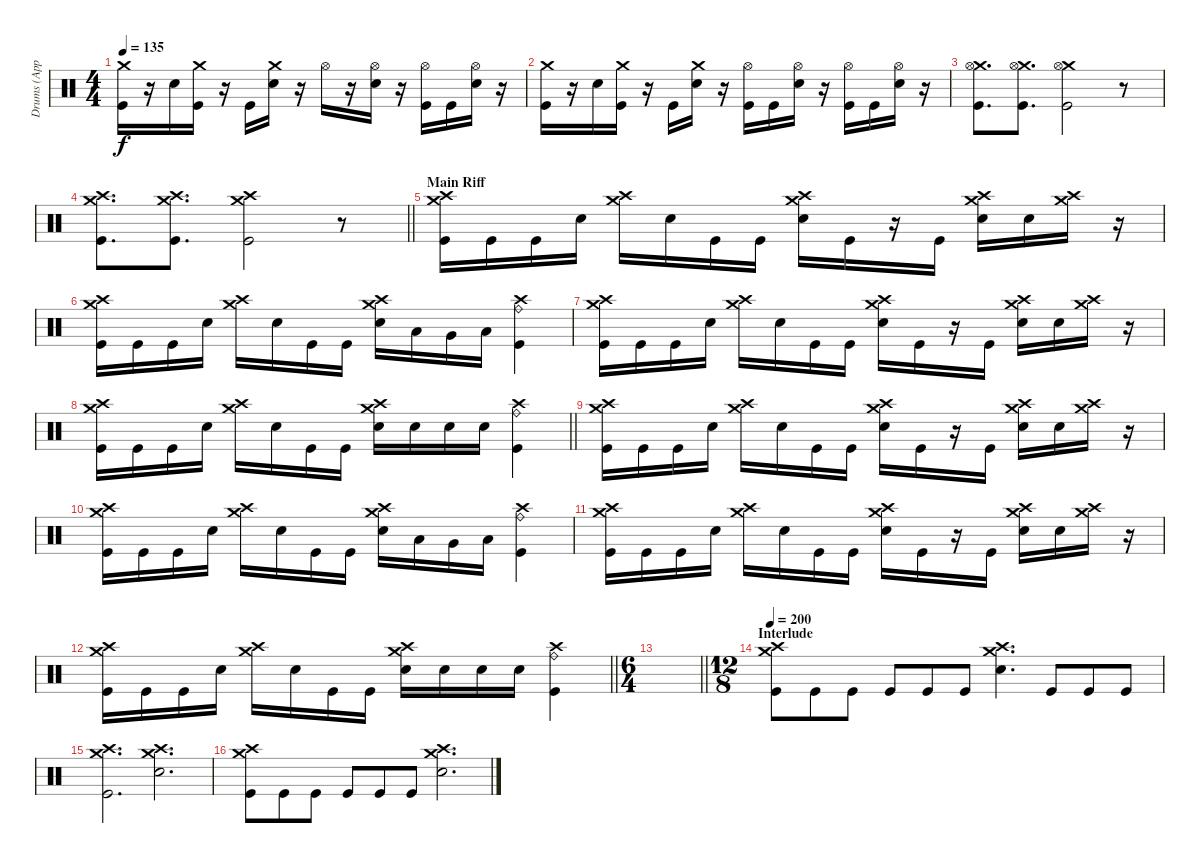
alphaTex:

\track ("Drums (Approx.)" "Drums (App") {instrument percussion}
\staff {score}
\articulation defaults
\ts (4 4)
\tempo 135
\clef neutral
\ks c
("Crash medium (hit)" "Kick (hit)").16{dy f} r.16 "Electric Snare (hit)".16 ("Crash medium (hit)" "Kick (hit)").16 r.16 "Kick (hit)".16 ("Crash medium (hit)" "Electric Snare (hit)").16 r.16 "Hi-Hat (open)".16 r.16 ("Hi-Hat (open)" "Electric Snare (hit)").16 r.16 ("Hi-Hat (open)" "Kick (hit)").16 "Kick (hit)".16 ("Hi-Hat (open)" "Electric Snare (hit)").16 r.16 |
("Crash medium (hit)" "Kick (hit)").16 r.16 "Electric Snare (hit)".16 ("Crash medium (hit)" "Kick (hit)").16 r.16 "Kick (hit)".16 ("Crash medium (hit)" "Electric Snare (hit)").16 r.16 ("Hi-Hat (open)" "Kick (hit)").16 "Kick (hit)".16 ("Hi-Hat (open)" "Electric Snare (hit)").16 r.16 ("Hi-Hat (open)" "Kick (hit)").16 "Kick (hit)".16 ("Hi-Hat (open)" "Electric Snare (hit)").16 r.16 |
("Crash medium (hit)" "Hi-Hat (open)" "Kick (hit)").8{d} ("Crash medium (hit)" "Hi-Hat (open)" "Kick (hit)").8{d} ("Crash medium (hit)" "Hi-Hat (open)" "Kick (hit)").2 r.8 |
\barLineRight lightlight
("Crash medium (hit)" "Crash high (hit)" "Kick (hit)").8{d} ("Crash medium (hit)" "Crash high (hit)" "Kick (hit)").8{d} ("Crash medium (hit)" "Crash high (hit)" "Kick (hit)").2 r.8 |
\section ("" "Main Riff")
("Crash medium (hit)" "Crash high (hit)" "Kick (hit)").16 "Kick (hit)".16 "Kick (hit)".16 "Electric Snare (hit)".16 ("Crash medium (hit)" "Crash high (hit)").16 "Electric Snare (hit)".16 "Kick (hit)".16 "Kick (hit)".16 ("Crash medium (hit)" "Crash high (hit)" "Electric Snare (hit)").16 "Kick (hit)".16 r.16 "Kick (hit)".16 ("Crash medium (hit)" "Crash high (hit)" "Electric Snare (hit)").16 "Electric Snare (hit)".16 ("Crash medium (hit)" "Crash high (hit)").16 r.16 |
("Crash medium (hit)" "Crash high (hit)" "Kick (hit)").16 "Kick (hit)".16 "Kick (hit)".16 "Electric Snare (hit)".16 ("Crash medium (hit)" "Crash high (hit)").16 "Electric Snare (hit)".16 "Kick (hit)".16 "Kick (hit)".16 ("Crash medium (hit)" "Crash high (hit)" "Electric Snare (hit)").16 "Low Tom (hit)".16 "Very Low Tom (hit)".16 "Low Floor Tom (hit)".16 ("Crash high (hit)" "Ride (bell)" "Kick (hit)").4 |
("Crash medium (hit)" "Crash high (hit)" "Kick (hit)").16 "Kick (hit)".16 "Kick (hit)".16 "Electric Snare (hit)".16 ("Crash medium (hit)" "Crash high (hit)").16 "Electric Snare (hit)".16 "Kick (hit)".16 "Kick (hit)".16 ("Crash medium (hit)" "Crash high (hit)" "Electric Snare (hit)").16 "Kick (hit)".16 r.16 "Kick (hit)".16 ("Crash medium (hit)" "Crash high (hit)" "Electric Snare (hit)").16 "Electric Snare (hit)".16 ("Crash medium (hit)" "Crash high (hit)").16 r.16 |
\barLineRight lightlight
("Crash medium (hit)" "Crash high (hit)" "Kick (hit)").16 "Kick (hit)".16 "Kick (hit)".16 "Electric Snare (hit)".16 ("Crash medium (hit)" "Crash high (hit)").16 "Electric Snare (hit)".16 "Kick (hit)".16 "Kick (hit)".16 ("Crash medium (hit)" "Crash high (hit)" "Electric Snare (hit)").16 "Electric Snare (hit)".16 "Electric Snare (hit)".16 "Electric Snare (hit)".16 ("Crash high (hit)" "Ride (bell)" "Kick (hit)").4 |
("Crash medium (hit)" "Crash high (hit)" "Kick (hit)").16 "Kick (hit)".16 "Kick (hit)".16 "Electric Snare (hit)".16 ("Crash medium (hit)" "Crash high (hit)").16 "Electric Snare (hit)".16 "Kick (hit)".16 "Kick (hit)".16 ("Crash medium (hit)" "Crash high (hit)" "Electric Snare (hit)").16 "Kick (hit)".16 r.16 "Kick (hit)".16 ("Crash medium (hit)" "Crash high (hit)" "Electric Snare (hit)").16 "Electric Snare (hit)".16 ("Crash medium (hit)" "Crash high (hit)").16 r.16 |
("Crash medium (hit)" "Crash high (hit)" "Kick (hit)").16 "Kick (hit)".16 "Kick (hit)".16 "Electric Snare (hit)".16 ("Crash medium (hit)" "Crash high (hit)").16 "Electric Snare (hit)".16 "Kick (hit)".16 "Kick (hit)".16 ("Crash medium (hit)" "Crash high (hit)" "Electric Snare (hit)").16 "Low Tom (hit)".16 "Very Low Tom (hit)".16 "Low Floor Tom (hit)".16 ("Crash high (hit)" "Ride (bell)" "Kick (hit)").4 |
("Crash medium (hit)" "Crash high (hit)" "Kick (hit)").16 "Kick (hit)".16 "Kick (hit)".16 "Electric Snare (hit)".16 ("Crash medium (hit)" "Crash high (hit)").16 "Electric Snare (hit)".16 "Kick (hit)".16 "Kick (hit)".16 ("Crash medium (hit)" "Crash high (hit)" "Electric Snare (hit)").16 "Kick (hit)".16 r.16 "Kick (hit)".16 ("Crash medium (hit)" "Crash high (hit)" "Electric Snare (hit)").16 "Electric Snare (hit)".16 ("Crash medium (hit)" "Crash high (hit)").16 r.16 |
\barLineRight lightlight
("Crash medium (hit)" "Crash high (hit)" "Kick (hit)").16 "Kick (hit)".16 "Kick (hit)".16 "Electric Snare (hit)".16 ("Crash medium (hit)" "Crash high (hit)").16 "Electric Snare (hit)".16 "Kick (hit)".16 "Kick (hit)".16 ("Crash medium (hit)" "Crash high (hit)" "Electric Snare (hit)").16 "Electric Snare (hit)".16 "Electric Snare (hit)".16 "Electric Snare (hit)".16 ("Crash high (hit)" "Ride (bell)" "Kick (hit)").4 |
\ts (6 4)
\barLineRight lightlight
|
\ts (12 8)
\section ("" "Interlude")
\tempo 200
("Crash medium (hit)" "Crash high (hit)" "Kick (hit)").8 "Kick (hit)".8 "Kick (hit)".8 "Kick (hit)".8 "Kick (hit)".8 "Kick (hit)".8 ("Crash medium (hit)" "Crash high (hit)" "Electric Snare (hit)").4{d} "Kick (hit)".8 "Kick (hit)".8 "Kick (hit)".8 |
("Crash medium (hit)" "Crash high (hit)" "Kick (hit)").2{d} ("Crash medium (hit)" "Crash high (hit)" "Electric Snare (hit)").2{d} |
("Crash medium (hit)" "Crash high (hit)" "Kick (hit)").8 "Kick (hit)".8 "Kick (hit)".8 "Kick (hit)".8 "Kick (hit)".8 "Kick (hit)".8 ("Crash medium (hit)" "Crash high (hit)" "Electric Snare (hit)").2{d}
